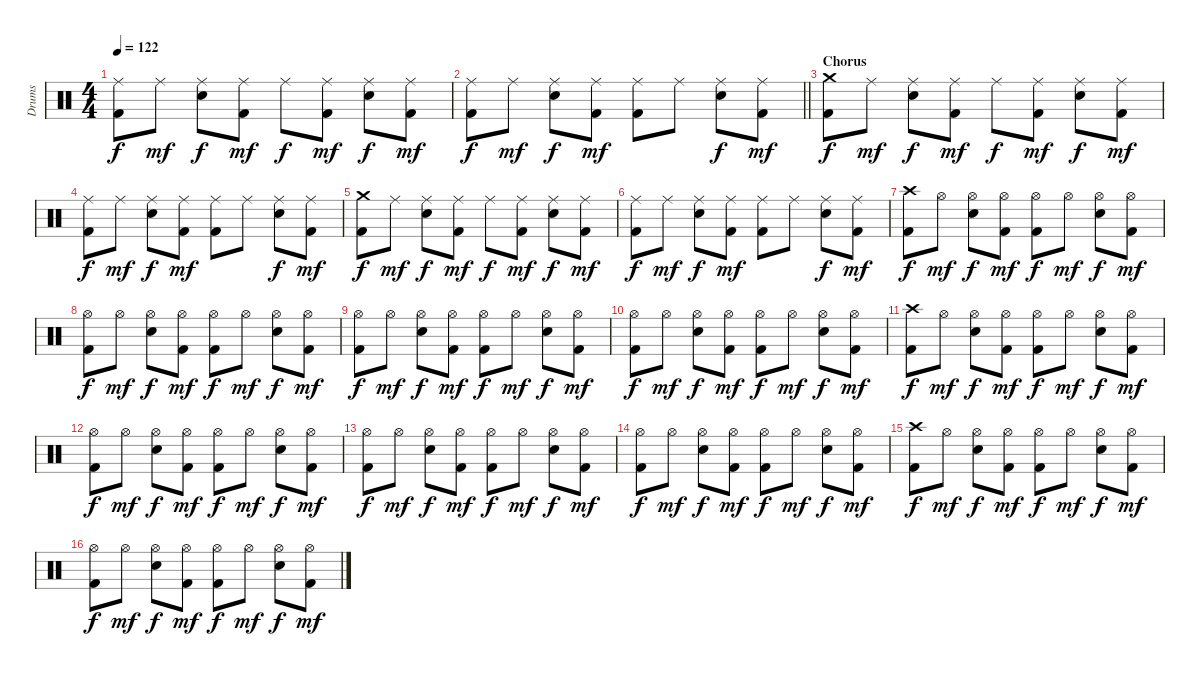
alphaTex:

\track ("Drums" "Drums") {instrument percussion}
\staff {score}
\articulation defaults
\ts (4 4)
\tempo 122
\clef neutral
\ks c
("Ride (middle)" "Kick (hit) 2").8{dy f} "Ride (middle)".8{dy mf} ("Ride (middle)" "Snare (hit) 2").8{dy f} ("Ride (middle)" "Kick (hit) 2").8{dy mf} "Ride (middle)".8{dy f} ("Ride (middle)" "Kick (hit) 2").8{dy mf} ("Ride (middle)" "Snare (hit) 2").8{dy f} ("Ride (middle)" "Kick (hit) 2").8{dy mf} |
\barLineRight lightlight
("Ride (middle)" "Kick (hit) 2").8{dy f} "Ride (middle)".8{dy mf} ("Ride (middle)" "Snare (hit) 2").8{dy f} ("Ride (middle)" "Kick (hit) 2").8{dy mf} ("Ride (middle)" "Kick (hit) 2").8 "Ride (middle)".8 ("Ride (middle)" "Snare (hit) 2").8{dy f} ("Ride (middle)" "Kick (hit) 2").8{dy mf} |
\section ("" "Chorus")
("Crash medium (hit)" "Kick (hit) 2").8{dy f} "Ride (middle)".8{dy mf} ("Ride (middle)" "Snare (hit) 2").8{dy f} ("Ride (middle)" "Kick (hit) 2").8{dy mf} "Ride (middle)".8{dy f} ("Ride (middle)" "Kick (hit) 2").8{dy mf} ("Ride (middle)" "Snare (hit) 2").8{dy f} ("Ride (middle)" "Kick (hit) 2").8{dy mf} |
("Ride (middle)" "Kick (hit) 2").8{dy f} "Ride (middle)".8{dy mf} ("Ride (middle)" "Snare (hit) 2").8{dy f} ("Ride (middle)" "Kick (hit) 2").8{dy mf} ("Ride (middle)" "Kick (hit) 2").8 "Ride (middle)".8 ("Ride (middle)" "Snare (hit) 2").8{dy f} ("Ride (middle)" "Kick (hit) 2").8{dy mf} |
("Crash medium (hit)" "Kick (hit) 2").8{dy f} "Ride (middle)".8{dy mf} ("Ride (middle)" "Snare (hit) 2").8{dy f} ("Ride (middle)" "Kick (hit) 2").8{dy mf} "Ride (middle)".8{dy f} ("Ride (middle)" "Kick (hit) 2").8{dy mf} ("Ride (middle)" "Snare (hit) 2").8{dy f} ("Ride (middle)" "Kick (hit) 2").8{dy mf} |
("Ride (middle)" "Kick (hit) 2").8{dy f} "Ride (middle)".8{dy mf} ("Ride (middle)" "Snare (hit) 2").8{dy f} ("Ride (middle)" "Kick (hit) 2").8{dy mf} ("Ride (middle)" "Kick (hit) 2").8 "Ride (middle)".8 ("Ride (middle)" "Snare (hit) 2").8{dy f} ("Ride (middle)" "Kick (hit) 2").8{dy mf} |
("Crash high (hit)" "Kick (hit) 2").8{dy f} "Hi-Hat (open)".8{dy mf} ("Hi-Hat (open)" "Snare (hit) 2").8{dy f} ("Hi-Hat (open)" "Kick (hit) 2").8{dy mf} ("Hi-Hat (open)" "Kick (hit) 2").8{dy f} "Hi-Hat (open)".8{dy mf} ("Hi-Hat (open)" "Snare (hit) 2").8{dy f} ("Hi-Hat (open)" "Kick (hit) 2").8{dy mf} |
("Hi-Hat (open)" "Kick (hit) 2").8{dy f} "Hi-Hat (open)".8{dy mf} ("Hi-Hat (open)" "Snare (hit) 2").8{dy f} ("Hi-Hat (open)" "Kick (hit) 2").8{dy mf} ("Hi-Hat (open)" "Kick (hit) 2").8{dy f} "Hi-Hat (open)".8{dy mf} ("Hi-Hat (open)" "Snare (hit) 2").8{dy f} ("Hi-Hat (open)" "Kick (hit) 2").8{dy mf} |
("Hi-Hat (open)" "Kick (hit) 2").8{dy f} "Hi-Hat (open)".8{dy mf} ("Hi-Hat (open)" "Snare (hit) 2").8{dy f} ("Hi-Hat (open)" "Kick (hit) 2").8{dy mf} ("Hi-Hat (open)" "Kick (hit) 2").8{dy f} "Hi-Hat (open)".8{dy mf} ("Hi-Hat (open)" "Snare (hit) 2").8{dy f} ("Hi-Hat (open)" "Kick (hit) 2").8{dy mf} |
("Hi-Hat (open)" "Kick (hit) 2").8{dy f} "Hi-Hat (open)".8{dy mf} ("Hi-Hat (open)" "Snare (hit) 2").8{dy f} ("Hi-Hat (open)" "Kick (hit) 2").8{dy mf} ("Hi-Hat (open)" "Kick (hit) 2").8{dy f} "Hi-Hat (open)".8{dy mf} ("Hi-Hat (open)" "Snare (hit) 2").8{dy f} ("Hi-Hat (open)" "Kick (hit) 2").8{dy mf} |
("Crash high (hit)" "Kick (hit) 2").8{dy f} "Hi-Hat (open)".8{dy mf} ("Hi-Hat (open)" "Snare (hit) 2").8{dy f} ("Hi-Hat (open)" "Kick (hit) 2").8{dy mf} ("Hi-Hat (open)" "Kick (hit) 2").8{dy f} "Hi-Hat (open)".8{dy mf} ("Hi-Hat (open)" "Snare (hit) 2").8{dy f} ("Hi-Hat (open)" "Kick (hit) 2").8{dy mf} |
("Hi-Hat (open)" "Kick (hit) 2").8{dy f} "Hi-Hat (open)".8{dy mf} ("Hi-Hat (open)" "Snare (hit) 2").8{dy f} ("Hi-Hat (open)" "Kick (hit) 2").8{dy mf} ("Hi-Hat (open)" "Kick (hit) 2").8{dy f} "Hi-Hat (open)".8{dy mf} ("Hi-Hat (open)" "Snare (hit) 2").8{dy f} ("Hi-Hat (open)" "Kick (hit) 2").8{dy mf} |
("Hi-Hat (open)" "Kick (hit) 2").8{dy f} "Hi-Hat (open)".8{dy mf} ("Hi-Hat (open)" "Snare (hit) 2").8{dy f} ("Hi-Hat (open)" "Kick (hit) 2").8{dy mf} ("Hi-Hat (open)" "Kick (hit) 2").8{dy f} "Hi-Hat (open)".8{dy mf} ("Hi-Hat (open)" "Snare (hit) 2").8{dy f} ("Hi-Hat (open)" "Kick (hit) 2").8{dy mf} |
("Hi-Hat (open)" "Kick (hit) 2").8{dy f} "Hi-Hat (open)".8{dy mf} ("Hi-Hat (open)" "Snare (hit) 2").8{dy f} ("Hi-Hat (open)" "Kick (hit) 2").8{dy mf} ("Hi-Hat (open)" "Kick (hit) 2").8{dy f} "Hi-Hat (open)".8{dy mf} ("Hi-Hat (open)" "Snare (hit) 2").8{dy f} ("Hi-Hat (open)" "Kick (hit) 2").8{dy mf} |
("Crash high (hit)" "Kick (hit) 2").8{dy f} "Hi-Hat (open)".8{dy mf} ("Hi-Hat (open)" "Snare (hit) 2").8{dy f} ("Hi-Hat (open)" "Kick (hit) 2").8{dy mf} ("Hi-Hat (open)" "Kick (hit) 2").8{dy f} "Hi-Hat (open)".8{dy mf} ("Hi-Hat (open)" "Snare (hit) 2").8{dy f} ("Hi-Hat (open)" "Kick (hit) 2").8{dy mf} |
("Hi-Hat (open)" "Kick (hit) 2").8{dy f} "Hi-Hat (open)".8{dy mf} ("Hi-Hat (open)" "Snare (hit) 2").8{dy f} ("Hi-Hat (open)" "Kick (hit) 2").8{dy mf} ("Hi-Hat (open)" "Kick (hit) 2").8{dy f} "Hi-Hat (open)".8{dy mf} ("Hi-Hat (open)" "Snare (hit) 2").8{dy f} ("Hi-Hat (open)" "Kick (hit) 2").8{dy mf}
